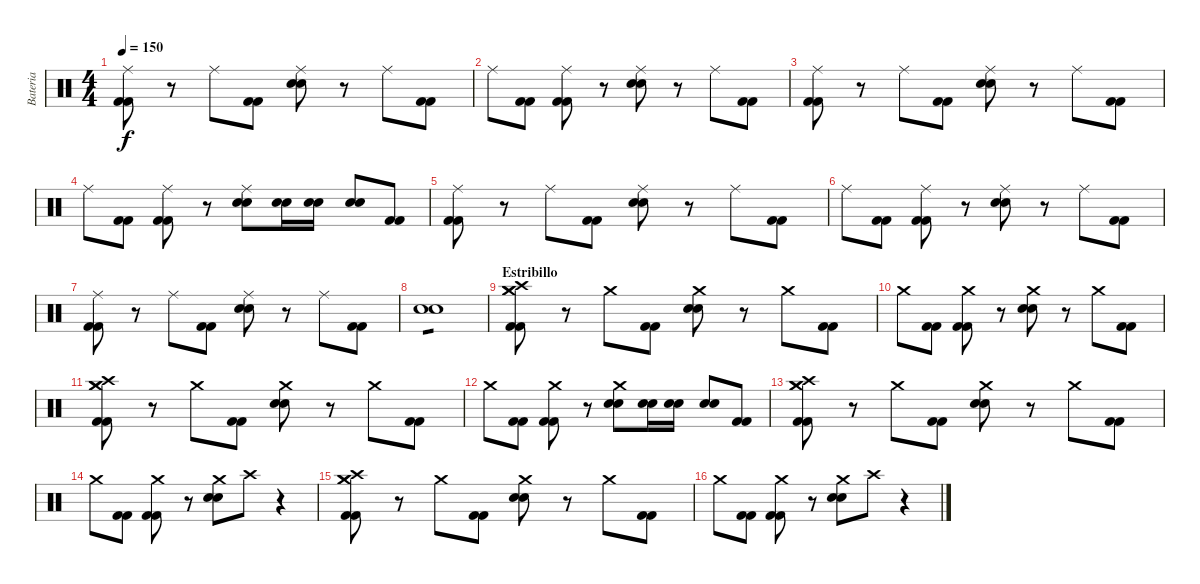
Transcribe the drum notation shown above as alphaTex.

\track ("Bateria" "Bateria") {instrument percussion}
\staff {score}
\articulation defaults
\ts (4 4)
\tempo 150
\clef neutral
\ks c
("Ride (middle)" "Kick (hit) 2" "Kick (hit) 2").8{dy f} r.8 "Ride (middle)".8 ("Kick (hit) 2" "Kick (hit) 2").8 ("Ride (middle)" "Electric Snare (hit)" "Electric Snare (hit)").8 r.8 "Ride (middle)".8 ("Kick (hit) 2" "Kick (hit) 2").8 |
"Ride (middle)".8 ("Kick (hit) 2" "Kick (hit) 2").8 ("Ride (middle)" "Kick (hit) 2" "Kick (hit) 2").8 r.8 ("Ride (middle)" "Electric Snare (hit)" "Electric Snare (hit)").8 r.8 "Ride (middle)".8 ("Kick (hit) 2" "Kick (hit) 2").8 |
("Ride (middle)" "Kick (hit) 2" "Kick (hit) 2").8 r.8 "Ride (middle)".8 ("Kick (hit) 2" "Kick (hit) 2").8 ("Ride (middle)" "Electric Snare (hit)" "Electric Snare (hit)").8 r.8 "Ride (middle)".8 ("Kick (hit) 2" "Kick (hit) 2").8 |
"Ride (middle)".8 ("Kick (hit) 2" "Kick (hit) 2").8 ("Ride (middle)" "Kick (hit) 2" "Kick (hit) 2").8 r.8 ("Ride (middle)" "Electric Snare (hit)" "Electric Snare (hit)").8 ("Electric Snare (hit)" "Electric Snare (hit)").16 ("Electric Snare (hit)" "Electric Snare (hit)").16 ("Electric Snare (hit)" "Electric Snare (hit)").8 ("Kick (hit) 2" "Kick (hit) 2").8 |
("Ride (middle)" "Kick (hit) 2" "Kick (hit) 2").8 r.8 "Ride (middle)".8 ("Kick (hit) 2" "Kick (hit) 2").8 ("Ride (middle)" "Electric Snare (hit)" "Electric Snare (hit)").8 r.8 "Ride (middle)".8 ("Kick (hit) 2" "Kick (hit) 2").8 |
"Ride (middle)".8 ("Kick (hit) 2" "Kick (hit) 2").8 ("Ride (middle)" "Kick (hit) 2" "Kick (hit) 2").8 r.8 ("Ride (middle)" "Electric Snare (hit)" "Electric Snare (hit)").8 r.8 "Ride (middle)".8 ("Kick (hit) 2" "Kick (hit) 2").8 |
("Ride (middle)" "Kick (hit) 2" "Kick (hit) 2").8 r.8 "Ride (middle)".8 ("Kick (hit) 2" "Kick (hit) 2").8 ("Ride (middle)" "Electric Snare (hit)" "Electric Snare (hit)").8 r.8 "Ride (middle)".8 ("Kick (hit) 2" "Kick (hit) 2").8 |
("Electric Snare (hit)" "Electric Snare (hit)").1{tp 1} |
\section ("" "Estribillo")
("Crash medium (hit)" "Crash high (hit)" "Crash medium (hit)" "Kick (hit) 2" "Kick (hit) 2").8 r.8 "Crash medium (hit)".8 ("Kick (hit) 2" "Kick (hit) 2").8 ("Crash medium (hit)" "Electric Snare (hit)" "Electric Snare (hit)").8 r.8 "Crash medium (hit)".8 ("Kick (hit) 2" "Kick (hit) 2").8 |
"Crash medium (hit)".8 ("Kick (hit) 2" "Kick (hit) 2").8 ("Crash medium (hit)" "Kick (hit) 2" "Kick (hit) 2").8 r.8 ("Crash medium (hit)" "Electric Snare (hit)" "Electric Snare (hit)").8 r.8 "Crash medium (hit)".8 ("Kick (hit) 2" "Kick (hit) 2").8 |
("Crash medium (hit)" "Crash high (hit)" "Crash medium (hit)" "Kick (hit) 2" "Kick (hit) 2").8 r.8 "Crash medium (hit)".8 ("Kick (hit) 2" "Kick (hit) 2").8 ("Crash medium (hit)" "Electric Snare (hit)" "Electric Snare (hit)").8 r.8 "Crash medium (hit)".8 ("Kick (hit) 2" "Kick (hit) 2").8 |
"Crash medium (hit)".8 ("Kick (hit) 2" "Kick (hit) 2").8 ("Crash medium (hit)" "Kick (hit) 2" "Kick (hit) 2").8 r.8 ("Crash medium (hit)" "Electric Snare (hit)" "Electric Snare (hit)").8 ("Electric Snare (hit)" "Electric Snare (hit)").16 ("Electric Snare (hit)" "Electric Snare (hit)").16 ("Electric Snare (hit)" "Electric Snare (hit)").8 ("Kick (hit) 2" "Kick (hit) 2").8 |
("Crash medium (hit)" "Crash high (hit)" "Crash medium (hit)" "Kick (hit) 2" "Kick (hit) 2").8 r.8 "Crash medium (hit)".8 ("Kick (hit) 2" "Kick (hit) 2").8 ("Crash medium (hit)" "Electric Snare (hit)" "Electric Snare (hit)").8 r.8 "Crash medium (hit)".8 ("Kick (hit) 2" "Kick (hit) 2").8 |
"Crash medium (hit)".8 ("Kick (hit) 2" "Kick (hit) 2").8 ("Crash medium (hit)" "Kick (hit) 2" "Kick (hit) 2").8 r.8 ("Crash medium (hit)" "Electric Snare (hit)" "Electric Snare (hit)").8 "Crash high (hit)".8 r.4 |
("Crash medium (hit)" "Crash high (hit)" "Crash medium (hit)" "Kick (hit) 2" "Kick (hit) 2").8 r.8 "Crash medium (hit)".8 ("Kick (hit) 2" "Kick (hit) 2").8 ("Crash medium (hit)" "Electric Snare (hit)" "Electric Snare (hit)").8 r.8 "Crash medium (hit)".8 ("Kick (hit) 2" "Kick (hit) 2").8 |
"Crash medium (hit)".8 ("Kick (hit) 2" "Kick (hit) 2").8 ("Crash medium (hit)" "Kick (hit) 2" "Kick (hit) 2").8 r.8 ("Crash medium (hit)" "Electric Snare (hit)" "Electric Snare (hit)").8 "Crash high (hit)".8 r.4
